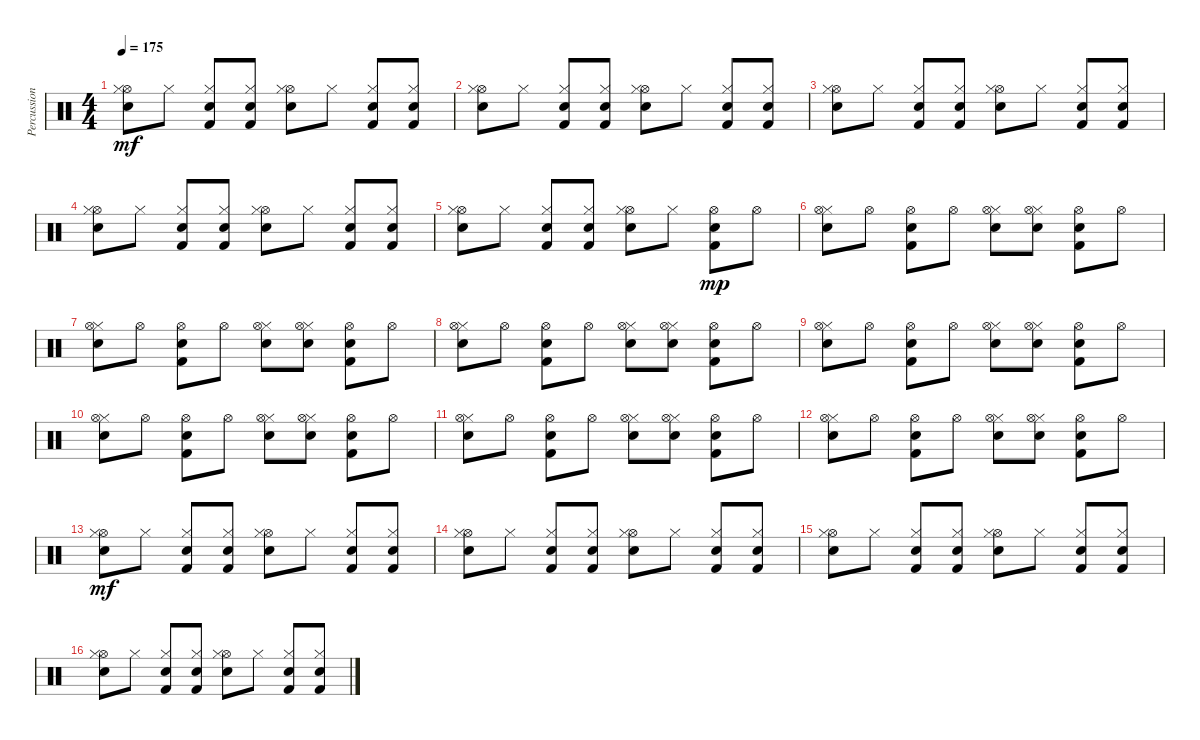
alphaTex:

\track ("Percussions" "Percussion") {instrument percussion}
\staff {score}
\articulation defaults
\ts (4 4)
\tempo 175
\clef neutral
\ks c
("Snare (hit) 2" "Hi-Hat (open)" "Hi-Hat (closed)").8{dy mf} "Hi-Hat (closed)".8 ("Kick (hit) 2" "Snare (hit) 2" "Hi-Hat (closed)").8 ("Kick (hit) 2" "Snare (hit) 2" "Hi-Hat (closed)").8 ("Snare (hit) 2" "Hi-Hat (open)" "Hi-Hat (closed)").8 "Hi-Hat (closed)".8 ("Kick (hit) 2" "Snare (hit) 2" "Hi-Hat (closed)").8 ("Kick (hit) 2" "Snare (hit) 2" "Hi-Hat (closed)").8 |
("Snare (hit) 2" "Hi-Hat (open)" "Hi-Hat (closed)").8 "Hi-Hat (closed)".8 ("Kick (hit) 2" "Snare (hit) 2" "Hi-Hat (closed)").8 ("Kick (hit) 2" "Snare (hit) 2" "Hi-Hat (closed)").8 ("Snare (hit) 2" "Hi-Hat (open)" "Hi-Hat (closed)").8 "Hi-Hat (closed)".8 ("Kick (hit) 2" "Snare (hit) 2" "Hi-Hat (closed)").8 ("Kick (hit) 2" "Snare (hit) 2" "Hi-Hat (closed)").8 |
("Snare (hit) 2" "Hi-Hat (open)" "Hi-Hat (closed)").8 "Hi-Hat (closed)".8 ("Kick (hit) 2" "Snare (hit) 2" "Hi-Hat (closed)").8 ("Kick (hit) 2" "Snare (hit) 2" "Hi-Hat (closed)").8 ("Snare (hit) 2" "Hi-Hat (open)" "Hi-Hat (closed)").8 "Hi-Hat (closed)".8 ("Kick (hit) 2" "Snare (hit) 2" "Hi-Hat (closed)").8 ("Kick (hit) 2" "Snare (hit) 2" "Hi-Hat (closed)").8 |
("Snare (hit) 2" "Hi-Hat (open)" "Hi-Hat (closed)").8 "Hi-Hat (closed)".8 ("Kick (hit) 2" "Snare (hit) 2" "Hi-Hat (closed)").8 ("Kick (hit) 2" "Snare (hit) 2" "Hi-Hat (closed)").8 ("Snare (hit) 2" "Hi-Hat (open)" "Hi-Hat (closed)").8 "Hi-Hat (closed)".8 ("Kick (hit) 2" "Snare (hit) 2" "Hi-Hat (closed)").8 ("Kick (hit) 2" "Snare (hit) 2" "Hi-Hat (closed)").8 |
("Snare (hit) 2" "Hi-Hat (open)" "Hi-Hat (closed)").8 "Hi-Hat (closed)".8 ("Kick (hit) 2" "Snare (hit) 2" "Hi-Hat (closed)").8 ("Kick (hit) 2" "Snare (hit) 2" "Hi-Hat (closed)").8 ("Snare (hit) 2" "Hi-Hat (open)" "Hi-Hat (closed)").8 "Hi-Hat (closed)".8 ("Kick (hit) 2" "Snare (hit) 2" "Hi-Hat (open)").8{dy mp} "Hi-Hat (open)".8 |
("Snare (hit) 2" "Hi-Hat (closed)" "Hi-Hat (open)").8 "Hi-Hat (open)".8 ("Kick (hit) 2" "Snare (hit) 2" "Hi-Hat (open)").8 "Hi-Hat (open)".8 ("Snare (hit) 2" "Hi-Hat (closed)" "Hi-Hat (open)").8 ("Snare (hit) 2" "Hi-Hat (closed)" "Hi-Hat (open)").8 ("Kick (hit) 2" "Snare (hit) 2" "Hi-Hat (open)").8 "Hi-Hat (open)".8 |
("Snare (hit) 2" "Hi-Hat (closed)" "Hi-Hat (open)").8 "Hi-Hat (open)".8 ("Kick (hit) 2" "Snare (hit) 2" "Hi-Hat (open)").8 "Hi-Hat (open)".8 ("Snare (hit) 2" "Hi-Hat (closed)" "Hi-Hat (open)").8 ("Snare (hit) 2" "Hi-Hat (closed)" "Hi-Hat (open)").8 ("Kick (hit) 2" "Snare (hit) 2" "Hi-Hat (open)").8 "Hi-Hat (open)".8 |
("Snare (hit) 2" "Hi-Hat (closed)" "Hi-Hat (open)").8 "Hi-Hat (open)".8 ("Kick (hit) 2" "Snare (hit) 2" "Hi-Hat (open)").8 "Hi-Hat (open)".8 ("Snare (hit) 2" "Hi-Hat (closed)" "Hi-Hat (open)").8 ("Snare (hit) 2" "Hi-Hat (closed)" "Hi-Hat (open)").8 ("Kick (hit) 2" "Snare (hit) 2" "Hi-Hat (open)").8 "Hi-Hat (open)".8 |
("Snare (hit) 2" "Hi-Hat (closed)" "Hi-Hat (open)").8 "Hi-Hat (open)".8 ("Kick (hit) 2" "Snare (hit) 2" "Hi-Hat (open)").8 "Hi-Hat (open)".8 ("Snare (hit) 2" "Hi-Hat (closed)" "Hi-Hat (open)").8 ("Snare (hit) 2" "Hi-Hat (closed)" "Hi-Hat (open)").8 ("Kick (hit) 2" "Snare (hit) 2" "Hi-Hat (open)").8 "Hi-Hat (open)".8 |
("Snare (hit) 2" "Hi-Hat (closed)" "Hi-Hat (open)").8 "Hi-Hat (open)".8 ("Kick (hit) 2" "Snare (hit) 2" "Hi-Hat (open)").8 "Hi-Hat (open)".8 ("Snare (hit) 2" "Hi-Hat (closed)" "Hi-Hat (open)").8 ("Snare (hit) 2" "Hi-Hat (closed)" "Hi-Hat (open)").8 ("Kick (hit) 2" "Snare (hit) 2" "Hi-Hat (open)").8 "Hi-Hat (open)".8 |
("Snare (hit) 2" "Hi-Hat (closed)" "Hi-Hat (open)").8 "Hi-Hat (open)".8 ("Kick (hit) 2" "Snare (hit) 2" "Hi-Hat (open)").8 "Hi-Hat (open)".8 ("Snare (hit) 2" "Hi-Hat (closed)" "Hi-Hat (open)").8 ("Snare (hit) 2" "Hi-Hat (closed)" "Hi-Hat (open)").8 ("Kick (hit) 2" "Snare (hit) 2" "Hi-Hat (open)").8 "Hi-Hat (open)".8 |
("Snare (hit) 2" "Hi-Hat (closed)" "Hi-Hat (open)").8 "Hi-Hat (open)".8 ("Kick (hit) 2" "Snare (hit) 2" "Hi-Hat (open)").8 "Hi-Hat (open)".8 ("Snare (hit) 2" "Hi-Hat (closed)" "Hi-Hat (open)").8 ("Snare (hit) 2" "Hi-Hat (closed)" "Hi-Hat (open)").8 ("Kick (hit) 2" "Snare (hit) 2" "Hi-Hat (open)").8 "Hi-Hat (open)".8 |
("Snare (hit) 2" "Hi-Hat (open)" "Hi-Hat (closed)").8{dy mf} "Hi-Hat (closed)".8 ("Kick (hit) 2" "Snare (hit) 2" "Hi-Hat (closed)").8 ("Kick (hit) 2" "Snare (hit) 2" "Hi-Hat (closed)").8 ("Snare (hit) 2" "Hi-Hat (open)" "Hi-Hat (closed)").8 "Hi-Hat (closed)".8 ("Kick (hit) 2" "Snare (hit) 2" "Hi-Hat (closed)").8 ("Kick (hit) 2" "Snare (hit) 2" "Hi-Hat (closed)").8 |
("Snare (hit) 2" "Hi-Hat (open)" "Hi-Hat (closed)").8 "Hi-Hat (closed)".8 ("Kick (hit) 2" "Snare (hit) 2" "Hi-Hat (closed)").8 ("Kick (hit) 2" "Snare (hit) 2" "Hi-Hat (closed)").8 ("Snare (hit) 2" "Hi-Hat (open)" "Hi-Hat (closed)").8 "Hi-Hat (closed)".8 ("Kick (hit) 2" "Snare (hit) 2" "Hi-Hat (closed)").8 ("Kick (hit) 2" "Snare (hit) 2" "Hi-Hat (closed)").8 |
("Snare (hit) 2" "Hi-Hat (open)" "Hi-Hat (closed)").8 "Hi-Hat (closed)".8 ("Kick (hit) 2" "Snare (hit) 2" "Hi-Hat (closed)").8 ("Kick (hit) 2" "Snare (hit) 2" "Hi-Hat (closed)").8 ("Snare (hit) 2" "Hi-Hat (open)" "Hi-Hat (closed)").8 "Hi-Hat (closed)".8 ("Kick (hit) 2" "Snare (hit) 2" "Hi-Hat (closed)").8 ("Kick (hit) 2" "Snare (hit) 2" "Hi-Hat (closed)").8 |
("Snare (hit) 2" "Hi-Hat (open)" "Hi-Hat (closed)").8 "Hi-Hat (closed)".8 ("Kick (hit) 2" "Snare (hit) 2" "Hi-Hat (closed)").8 ("Kick (hit) 2" "Snare (hit) 2" "Hi-Hat (closed)").8 ("Snare (hit) 2" "Hi-Hat (open)" "Hi-Hat (closed)").8 "Hi-Hat (closed)".8 ("Kick (hit) 2" "Snare (hit) 2" "Hi-Hat (closed)").8 ("Kick (hit) 2" "Snare (hit) 2" "Hi-Hat (closed)").8
